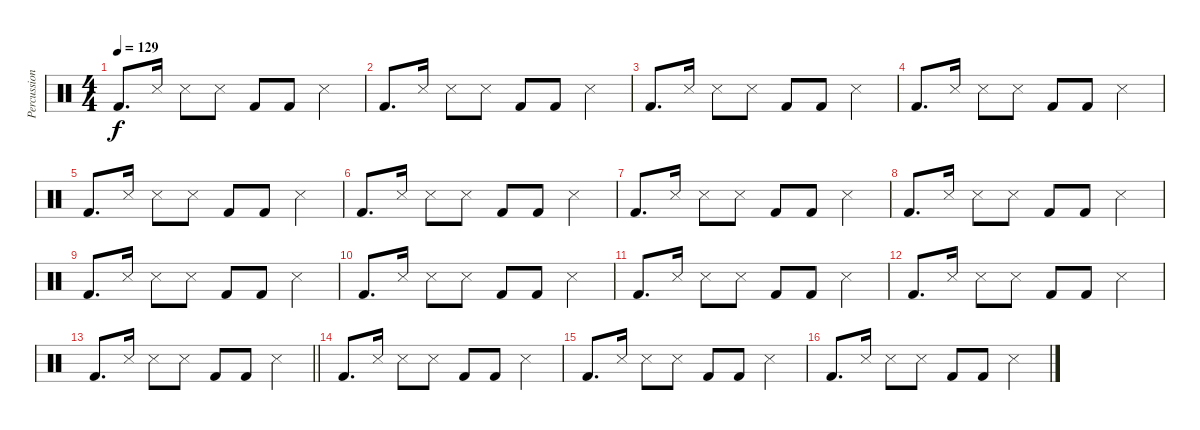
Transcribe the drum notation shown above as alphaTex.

\track ("Percussion (Joel)" "Percussion") {instrument percussion}
\staff {score}
\articulation defaults
\ts (4 4)
\tempo 129
\clef neutral
\ks c "Kick (hit) 2".8{d dy f} "Snare (side stick) 3".16 "Snare (side stick) 3".8 "Snare (side stick) 3".8 "Kick (hit) 2".8 "Kick (hit) 2".8 "Snare (side stick) 3".4
|
"Kick (hit) 2".8{d} "Snare (side stick) 3".16 "Snare (side stick) 3".8 "Snare (side stick) 3".8 "Kick (hit) 2".8 "Kick (hit) 2".8 "Snare (side stick) 3".4 |
"Kick (hit) 2".8{d} "Snare (side stick) 3".16 "Snare (side stick) 3".8 "Snare (side stick) 3".8 "Kick (hit) 2".8 "Kick (hit) 2".8 "Snare (side stick) 3".4 |
"Kick (hit) 2".8{d} "Snare (side stick) 3".16 "Snare (side stick) 3".8 "Snare (side stick) 3".8 "Kick (hit) 2".8 "Kick (hit) 2".8 "Snare (side stick) 3".4 |
"Kick (hit) 2".8{d} "Snare (side stick) 3".16 "Snare (side stick) 3".8 "Snare (side stick) 3".8 "Kick (hit) 2".8 "Kick (hit) 2".8 "Snare (side stick) 3".4 |
"Kick (hit) 2".8{d} "Snare (side stick) 3".16 "Snare (side stick) 3".8 "Snare (side stick) 3".8 "Kick (hit) 2".8 "Kick (hit) 2".8 "Snare (side stick) 3".4 |
"Kick (hit) 2".8{d} "Snare (side stick) 3".16 "Snare (side stick) 3".8 "Snare (side stick) 3".8 "Kick (hit) 2".8 "Kick (hit) 2".8 "Snare (side stick) 3".4 |
"Kick (hit) 2".8{d} "Snare (side stick) 3".16 "Snare (side stick) 3".8 "Snare (side stick) 3".8 "Kick (hit) 2".8 "Kick (hit) 2".8 "Snare (side stick) 3".4 |
"Kick (hit) 2".8{d} "Snare (side stick) 3".16 "Snare (side stick) 3".8 "Snare (side stick) 3".8 "Kick (hit) 2".8 "Kick (hit) 2".8 "Snare (side stick) 3".4 |
"Kick (hit) 2".8{d} "Snare (side stick) 3".16 "Snare (side stick) 3".8 "Snare (side stick) 3".8 "Kick (hit) 2".8 "Kick (hit) 2".8 "Snare (side stick) 3".4 |
"Kick (hit) 2".8{d} "Snare (side stick) 3".16 "Snare (side stick) 3".8 "Snare (side stick) 3".8 "Kick (hit) 2".8 "Kick (hit) 2".8 "Snare (side stick) 3".4 |
"Kick (hit) 2".8{d} "Snare (side stick) 3".16 "Snare (side stick) 3".8 "Snare (side stick) 3".8 "Kick (hit) 2".8 "Kick (hit) 2".8 "Snare (side stick) 3".4 |
\barLineRight lightlight "Kick (hit) 2".8{d} "Snare (side stick) 3".16 "Snare (side stick) 3".8 "Snare (side stick) 3".8 "Kick (hit) 2".8 "Kick (hit) 2".8 "Snare (side stick) 3".4
|
"Kick (hit) 2".8{d} "Snare (side stick) 3".16 "Snare (side stick) 3".8 "Snare (side stick) 3".8 "Kick (hit) 2".8 "Kick (hit) 2".8 "Snare (side stick) 3".4 |
"Kick (hit) 2".8{d} "Snare (side stick) 3".16 "Snare (side stick) 3".8 "Snare (side stick) 3".8 "Kick (hit) 2".8 "Kick (hit) 2".8 "Snare (side stick) 3".4 |
"Kick (hit) 2".8{d} "Snare (side stick) 3".16 "Snare (side stick) 3".8 "Snare (side stick) 3".8 "Kick (hit) 2".8 "Kick (hit) 2".8 "Snare (side stick) 3".4
